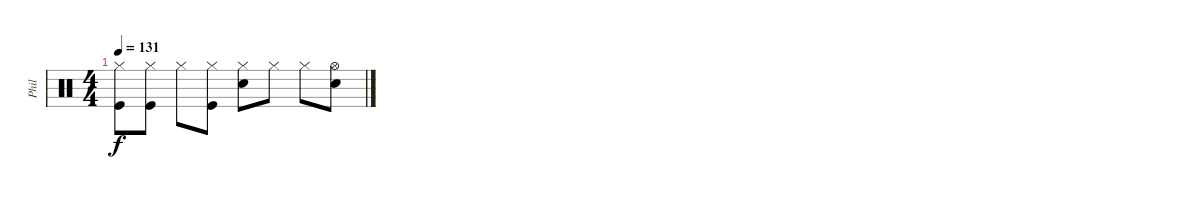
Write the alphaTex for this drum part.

\track ("Phil" "Phil") {instrument percussion}
\staff {score}
\articulation defaults
\ts (4 4)
\tempo 131
\clef neutral
\ks c
("Hi-Hat (closed)" "Kick (hit)").8{dy f} ("Hi-Hat (closed)" "Kick (hit)").8 "Hi-Hat (closed)".8 ("Hi-Hat (closed)" "Kick (hit)").8 ("Hi-Hat (closed)" "Electric Snare (hit)").8 "Hi-Hat (closed)".8 "Hi-Hat (closed)".8 ("Hi-Hat (open)" "Electric Snare (hit)").8
